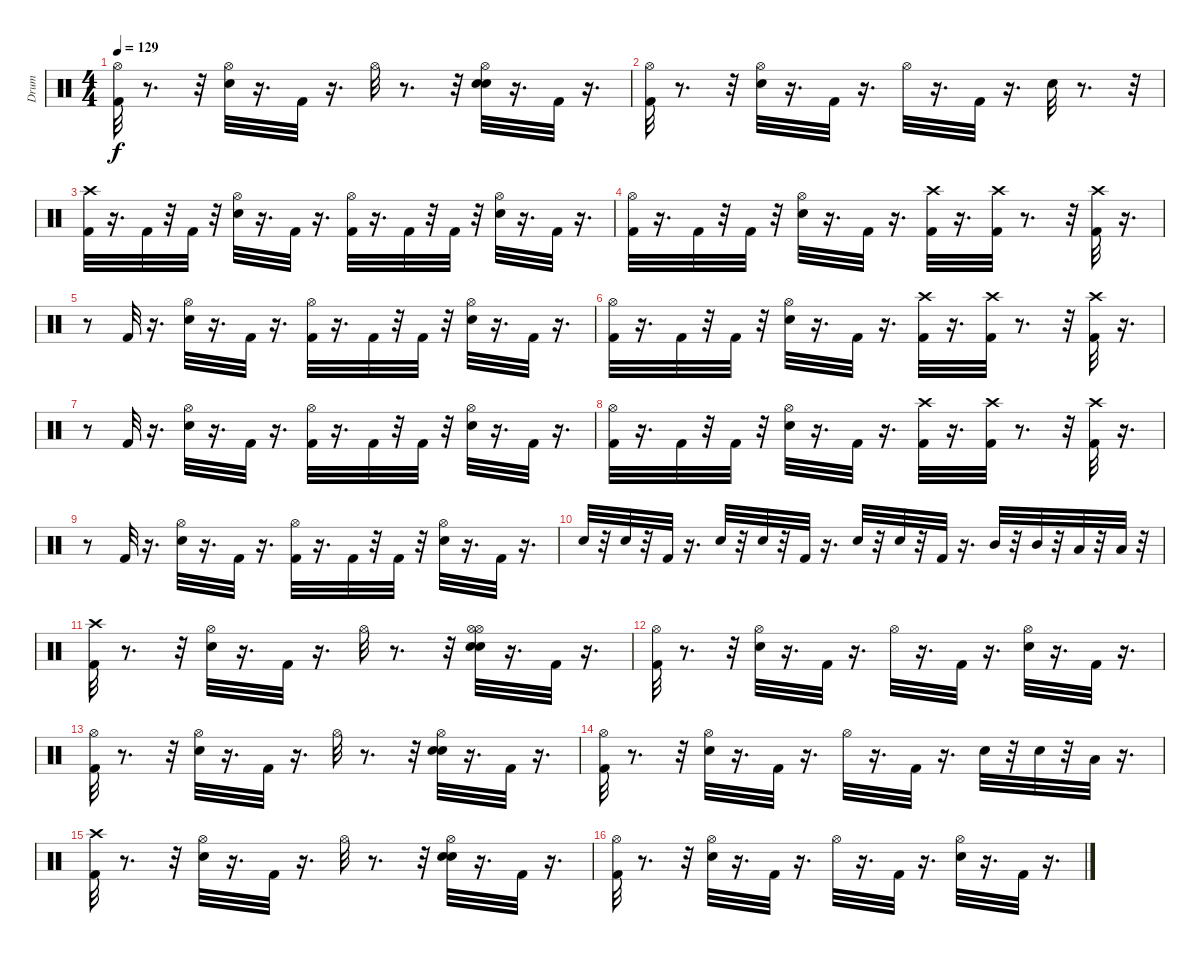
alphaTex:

\track ("Drum" "Drum") {instrument percussion}
\staff {score}
\articulation defaults
\ts (4 4)
\tempo 129
\clef neutral
\ks c
("Hi-Hat (open)" "Kick (hit) 2").32{dy f} r.8{d} r.32 ("Snare (hit) 2" "Hi-Hat (open)").32 r.16{d} "Kick (hit) 2".32 r.16{d} "Hi-Hat (open)".32 r.8{d} r.32 ("Snare (hit) 2" "Hi-Hat (open)" "Snare (hit) 2").32 r.16{d} "Kick (hit) 2".32 r.16{d} |
("Hi-Hat (open)" "Kick (hit) 2").32 r.8{d} r.32 ("Snare (hit) 2" "Hi-Hat (open)").32 r.16{d} "Kick (hit) 2".32 r.16{d} "Hi-Hat (open)".32 r.16{d} "Kick (hit) 2".32 r.16{d} "Snare (hit) 2".32 r.8{d} r.32 |
("Kick (hit) 2" "Crash high (hit)").32 r.16{d} "Kick (hit) 2".32 r.32 "Kick (hit) 2".32 r.32 ("Snare (hit) 2" "Hi-Hat (open)").32 r.16{d} "Kick (hit) 2".32 r.16{d} ("Kick (hit) 2" "Hi-Hat (open)").32 r.16{d} "Kick (hit) 2".32 r.32 "Kick (hit) 2".32 r.32 ("Snare (hit) 2" "Hi-Hat (open)").32 r.16{d} "Kick (hit) 2".32 r.16{d} |
("Kick (hit) 2" "Hi-Hat (open)").32 r.16{d} "Kick (hit) 2".32 r.32 "Kick (hit) 2".32 r.32 ("Snare (hit) 2" "Hi-Hat (open)").32 r.16{d} "Kick (hit) 2".32 r.16{d} ("Crash high (hit)" "Kick (hit) 2").32 r.16{d} ("Crash high (hit)" "Kick (hit) 2").32 r.8{d} r.32 ("Kick (hit) 2" "Crash high (hit)").32 r.16{d} |
r.8 "Kick (hit) 2".32 r.16{d} ("Snare (hit) 2" "Hi-Hat (open)").32 r.16{d} "Kick (hit) 2".32 r.16{d} ("Kick (hit) 2" "Hi-Hat (open)").32 r.16{d} "Kick (hit) 2".32 r.32 "Kick (hit) 2".32 r.32 ("Snare (hit) 2" "Hi-Hat (open)").32 r.16{d} "Kick (hit) 2".32 r.16{d} |
("Kick (hit) 2" "Hi-Hat (open)").32 r.16{d} "Kick (hit) 2".32 r.32 "Kick (hit) 2".32 r.32 ("Hi-Hat (open)" "Snare (hit) 2").32 r.16{d} "Kick (hit) 2".32 r.16{d} ("Crash high (hit)" "Kick (hit) 2").32 r.16{d} ("Crash high (hit)" "Kick (hit) 2").32 r.8{d} r.32 ("Kick (hit) 2" "Crash high (hit)").32 r.16{d} |
r.8 "Kick (hit) 2".32 r.16{d} ("Snare (hit) 2" "Hi-Hat (open)").32 r.16{d} "Kick (hit) 2".32 r.16{d} ("Kick (hit) 2" "Hi-Hat (open)").32 r.16{d} "Kick (hit) 2".32 r.32 "Kick (hit) 2".32 r.32 ("Snare (hit) 2" "Hi-Hat (open)").32 r.16{d} "Kick (hit) 2".32 r.16{d} |
("Kick (hit) 2" "Hi-Hat (open)").32 r.16{d} "Kick (hit) 2".32 r.32 "Kick (hit) 2".32 r.32 ("Snare (hit) 2" "Hi-Hat (open)").32 r.16{d} "Kick (hit) 2".32 r.16{d} ("Crash high (hit)" "Kick (hit) 2").32 r.16{d} ("Crash high (hit)" "Kick (hit) 2").32 r.8{d} r.32 ("Kick (hit) 2" "Crash high (hit)").32 r.16{d} |
r.8 "Kick (hit) 2".32 r.16{d} ("Snare (hit) 2" "Hi-Hat (open)").32 r.16{d} "Kick (hit) 2".32 r.16{d} ("Kick (hit) 2" "Hi-Hat (open)").32 r.16{d} "Kick (hit) 2".32 r.32 "Kick (hit) 2".32 r.32 ("Snare (hit) 2" "Hi-Hat (open)").32 r.16{d} "Kick (hit) 2".32 r.16{d} |
"Snare (hit) 2".32 r.32 "Snare (hit) 2".32 r.32 "Kick (hit) 2".32 r.16{d} "Snare (hit) 2".32 r.32 "Snare (hit) 2".32 r.32 "Kick (hit) 2".32 r.16{d} "Snare (hit) 2".32 r.32 "Snare (hit) 2".32 r.32 "Kick (hit) 2".32 r.16{d} "Mid Tom (hit)".32 r.32 "Mid Tom (hit)".32 r.32 "Low Tom (hit)".32 r.32 "Low Tom (hit)".32 r.32 |
("Kick (hit) 2" "Crash high (hit)").32 r.8{d} r.32 ("Snare (hit) 2" "Hi-Hat (open)").32 r.16{d} "Kick (hit) 2".32 r.16{d} "Hi-Hat (open)".32 r.8{d} r.32 ("Snare (hit) 2" "Hi-Hat (open)" "Snare (hit) 2" "Hi-Hat (open)").32 r.16{d} "Kick (hit) 2".32 r.16{d} |
("Kick (hit) 2" "Hi-Hat (open)").32 r.8{d} r.32 ("Snare (hit) 2" "Hi-Hat (open)").32 r.16{d} "Kick (hit) 2".32 r.16{d} "Hi-Hat (open)".32 r.16{d} "Kick (hit) 2".32 r.16{d} ("Snare (hit) 2" "Hi-Hat (open)").32 r.16{d} "Kick (hit) 2".32 r.16{d} |
("Hi-Hat (open)" "Kick (hit) 2").32 r.8{d} r.32 ("Snare (hit) 2" "Hi-Hat (open)").32 r.16{d} "Kick (hit) 2".32 r.16{d} "Hi-Hat (open)".32 r.8{d} r.32 ("Snare (hit) 2" "Hi-Hat (open)" "Snare (hit) 2").32 r.16{d} "Kick (hit) 2".32 r.16{d} |
("Kick (hit) 2" "Hi-Hat (open)").32 r.8{d} r.32 ("Snare (hit) 2" "Hi-Hat (open)").32 r.16{d} "Kick (hit) 2".32 r.16{d} "Hi-Hat (open)".32 r.16{d} "Kick (hit) 2".32 r.16{d} "Snare (hit) 2".32 r.32 "Snare (hit) 2".32 r.32 "Low Floor Tom (hit)".32 r.16{d} |
("Kick (hit) 2" "Crash high (hit)").32 r.8{d} r.32 ("Snare (hit) 2" "Hi-Hat (open)").32 r.16{d} "Kick (hit) 2".32 r.16{d} "Hi-Hat (open)".32 r.8{d} r.32 ("Snare (hit) 2" "Snare (hit) 2" "Hi-Hat (open)").32 r.16{d} "Kick (hit) 2".32 r.16{d} |
("Kick (hit) 2" "Hi-Hat (open)").32 r.8{d} r.32 ("Snare (hit) 2" "Hi-Hat (open)").32 r.16{d} "Kick (hit) 2".32 r.16{d} "Hi-Hat (open)".32 r.16{d} "Kick (hit) 2".32 r.16{d} ("Hi-Hat (open)" "Snare (hit) 2").32 r.16{d} "Kick (hit) 2".32 r.16{d}
